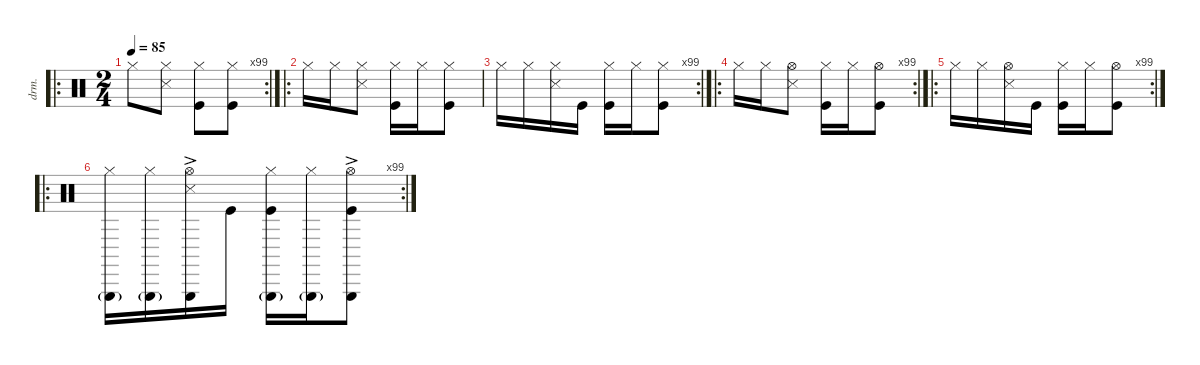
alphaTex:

\defaultSystemsLayout 4
\hideDynamics
\bracketExtendMode nobrackets
\otherSystemsTrackNameOrientation horizontal
\track ("Drumkit" "drm.") {instrument percussion}
\staff {score}
\articulation defaults
\ro
\rc 99
\ts (2 4)
\beaming (8 2 2)
\tempo 85
\clef neutral
\ks c "Hi-Hat (closed)".8{dy mf beam Down}
("Hi-Hat (closed)" "Snare (side stick) 3").8{beam Down} ("Hi-Hat (closed)" "Kick (hit)").8{beam Down} ("Hi-Hat (closed)" "Kick (hit)").8{beam Down} |
\ro "Hi-Hat (closed)".16{beam Down} "Hi-Hat (closed)".16{beam Down}
("Hi-Hat (closed)" "Snare (side stick) 3").8{beam Down} ("Hi-Hat (closed)" "Kick (hit)").16{beam Down} "Hi-Hat (closed)".16{beam Down} ("Hi-Hat (closed)" "Kick (hit)").8{beam Down} |
\rc 99 "Hi-Hat (closed)".16{beam Down} "Hi-Hat (closed)".16{beam Down}
("Hi-Hat (closed)" "Snare (side stick) 3").16{beam Down} "Kick (hit)".16{beam Down} ("Hi-Hat (closed)" "Kick (hit)").16{beam Down} "Hi-Hat (closed)".16{beam Down} ("Hi-Hat (closed)" "Kick (hit)").8{beam Down} |
\ro
\rc 99 "Hi-Hat (closed)".16{beam Down} "Hi-Hat (closed)".16{beam Down}
("Hi-Hat (open)" "Snare (side stick) 3").8{beam Down} ("Hi-Hat (closed)" "Kick (hit)").16{beam Down} "Hi-Hat (closed)".16{beam Down} ("Hi-Hat (open)" "Kick (hit)").8{beam Down} |
\ro
\rc 99 "Hi-Hat (closed)".16{beam Down} "Hi-Hat (closed)".16{beam Down}
("Hi-Hat (open)" "Snare (side stick) 3").16{beam Down} "Kick (hit)".16{beam Down} ("Hi-Hat (closed)" "Kick (hit)").16{beam Down} "Hi-Hat (closed)".16{beam Down} ("Hi-Hat (open)" "Kick (hit)").8{beam Down} |
\ro
\rc 99
("Triangle (hit)"{g} "Hi-Hat (closed)").16{beam Down} ("Triangle (hit)"{g} "Hi-Hat (closed)").16{beam Down} ("Triangle (hit)"{ac} "Snare (side stick) 3" "Hi-Hat (open)").16{beam Down} "Kick (hit)".16{beam Down} ("Triangle (hit)"{g} "Kick (hit)" "Hi-Hat (closed)").16{beam Down} ("Triangle (hit)"{g} "Hi-Hat (closed)").16{beam Down} ("Triangle (hit)"{ac} "Kick (hit)" "Hi-Hat (open)").8{beam Down}
